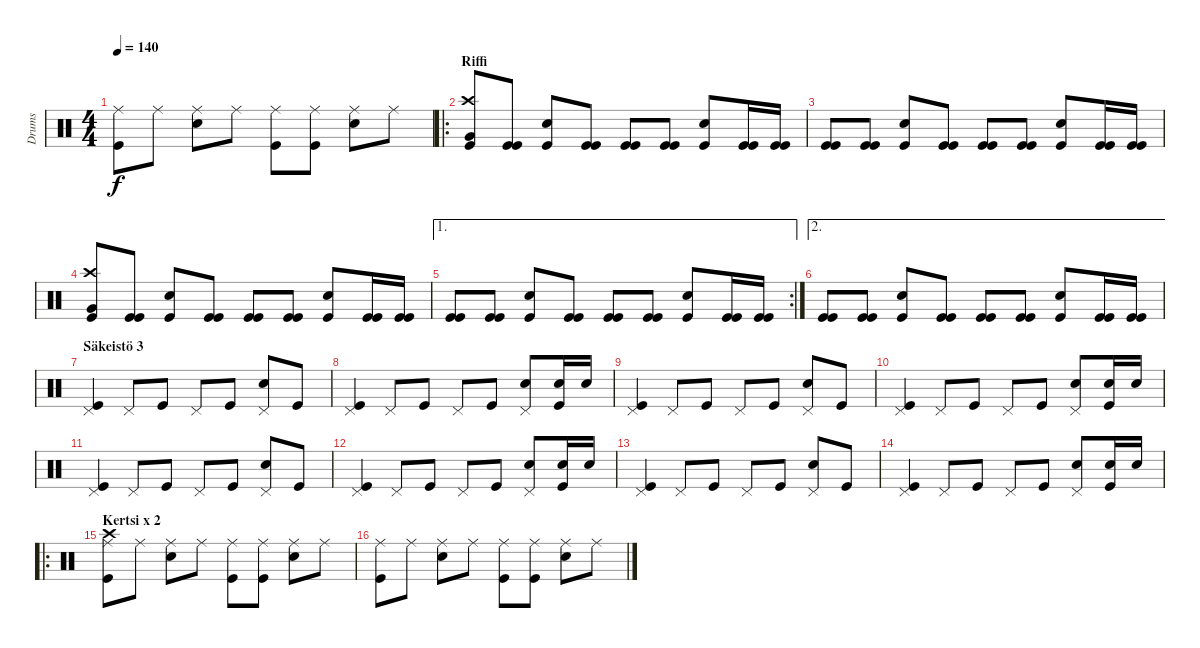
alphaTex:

\track ("Drums" "Drums") {instrument percussion}
\staff {score}
\articulation defaults
\ts (4 4)
\tempo 140
\clef neutral
\ks c
("Ride (middle)" "Kick (hit)").8{dy f} "Ride (middle)".8 ("Ride (middle)" "Snare (hit) 2").8 "Ride (middle)".8 ("Ride (middle)" "Kick (hit)").8 ("Ride (middle)" "Kick (hit)").8 ("Ride (middle)" "Snare (hit) 2").8 "Ride (middle)".8 |
\ro
\section ("" "Riffi")
("Crash high (hit)" "Very Low Tom (hit)" "Kick (hit)").8 ("Kick (hit)" "Kick (hit)").8 ("Snare (hit) 2" "Kick (hit)").8 ("Kick (hit)" "Kick (hit)").8 ("Kick (hit)" "Kick (hit)").8 ("Kick (hit)" "Kick (hit)").8 ("Snare (hit) 2" "Kick (hit)").8 ("Kick (hit)" "Kick (hit)").16 ("Kick (hit)" "Kick (hit)").16 |
("Kick (hit)" "Kick (hit)").8 ("Kick (hit)" "Kick (hit)").8 ("Snare (hit) 2" "Kick (hit)").8 ("Kick (hit)" "Kick (hit)").8 ("Kick (hit)" "Kick (hit)").8 ("Kick (hit)" "Kick (hit)").8 ("Snare (hit) 2" "Kick (hit)").8 ("Kick (hit)" "Kick (hit)").16 ("Kick (hit)" "Kick (hit)").16 |
("Crash high (hit)" "Very Low Tom (hit)" "Kick (hit)").8 ("Kick (hit)" "Kick (hit)").8 ("Snare (hit) 2" "Kick (hit)").8 ("Kick (hit)" "Kick (hit)").8 ("Kick (hit)" "Kick (hit)").8 ("Kick (hit)" "Kick (hit)").8 ("Snare (hit) 2" "Kick (hit)").8 ("Kick (hit)" "Kick (hit)").16 ("Kick (hit)" "Kick (hit)").16 |
\ae 1
\rc 2
("Kick (hit)" "Kick (hit)").8 ("Kick (hit)" "Kick (hit)").8 ("Snare (hit) 2" "Kick (hit)").8 ("Kick (hit)" "Kick (hit)").8 ("Kick (hit)" "Kick (hit)").8 ("Kick (hit)" "Kick (hit)").8 ("Snare (hit) 2" "Kick (hit)").8 ("Kick (hit)" "Kick (hit)").16 ("Kick (hit)" "Kick (hit)").16 |
\ae 2
("Kick (hit)" "Kick (hit)").8 ("Kick (hit)" "Kick (hit)").8 ("Snare (hit) 2" "Kick (hit)").8 ("Kick (hit)" "Kick (hit)").8 ("Kick (hit)" "Kick (hit)").8 ("Kick (hit)" "Kick (hit)").8 ("Snare (hit) 2" "Kick (hit)").8 ("Kick (hit)" "Kick (hit)").16 ("Kick (hit)" "Kick (hit)").16 |
\section ("" "Säkeistö 3")
("Pedal Hi-Hat (hit)" "Kick (hit)").4 "Pedal Hi-Hat (hit)".8 "Kick (hit)".8 "Pedal Hi-Hat (hit)".8 "Kick (hit)".8 ("Pedal Hi-Hat (hit)" "Snare (hit) 2").8 "Kick (hit)".8 |
("Pedal Hi-Hat (hit)" "Kick (hit)").4 "Pedal Hi-Hat (hit)".8 "Kick (hit)".8 "Pedal Hi-Hat (hit)".8 "Kick (hit)".8 ("Pedal Hi-Hat (hit)" "Snare (hit) 2").8 ("Snare (hit) 2" "Kick (hit)").16 "Snare (hit) 2".16 |
("Pedal Hi-Hat (hit)" "Kick (hit)").4 "Pedal Hi-Hat (hit)".8 "Kick (hit)".8 "Pedal Hi-Hat (hit)".8 "Kick (hit)".8 ("Pedal Hi-Hat (hit)" "Snare (hit) 2").8 "Kick (hit)".8 |
("Pedal Hi-Hat (hit)" "Kick (hit)").4 "Pedal Hi-Hat (hit)".8 "Kick (hit)".8 "Pedal Hi-Hat (hit)".8 "Kick (hit)".8 ("Pedal Hi-Hat (hit)" "Snare (hit) 2").8 ("Snare (hit) 2" "Kick (hit)").16 "Snare (hit) 2".16 |
("Pedal Hi-Hat (hit)" "Kick (hit)").4 "Pedal Hi-Hat (hit)".8 "Kick (hit)".8 "Pedal Hi-Hat (hit)".8 "Kick (hit)".8 ("Pedal Hi-Hat (hit)" "Snare (hit) 2").8 "Kick (hit)".8 |
("Pedal Hi-Hat (hit)" "Kick (hit)").4 "Pedal Hi-Hat (hit)".8 "Kick (hit)".8 "Pedal Hi-Hat (hit)".8 "Kick (hit)".8 ("Pedal Hi-Hat (hit)" "Snare (hit) 2").8 ("Snare (hit) 2" "Kick (hit)").16 "Snare (hit) 2".16 |
("Pedal Hi-Hat (hit)" "Kick (hit)").4 "Pedal Hi-Hat (hit)".8 "Kick (hit)".8 "Pedal Hi-Hat (hit)".8 "Kick (hit)".8 ("Pedal Hi-Hat (hit)" "Snare (hit) 2").8 "Kick (hit)".8 |
("Pedal Hi-Hat (hit)" "Kick (hit)").4 "Pedal Hi-Hat (hit)".8 "Kick (hit)".8 "Pedal Hi-Hat (hit)".8 "Kick (hit)".8 ("Pedal Hi-Hat (hit)" "Snare (hit) 2").8 ("Snare (hit) 2" "Kick (hit)").16 "Snare (hit) 2".16 |
\ro
\section ("" "Kertsi x 2")
("Ride (middle)" "Crash high (hit)" "Kick (hit)").8 "Ride (middle)".8 ("Ride (middle)" "Snare (hit) 2").8 "Ride (middle)".8 ("Ride (middle)" "Kick (hit)").8 ("Ride (middle)" "Kick (hit)").8 ("Ride (middle)" "Snare (hit) 2").8 "Ride (middle)".8 |
("Ride (middle)" "Kick (hit)").8 "Ride (middle)".8 ("Ride (middle)" "Snare (hit) 2").8 "Ride (middle)".8 ("Ride (middle)" "Kick (hit)").8 ("Ride (middle)" "Kick (hit)").8 ("Ride (middle)" "Snare (hit) 2").8 "Ride (middle)".8
